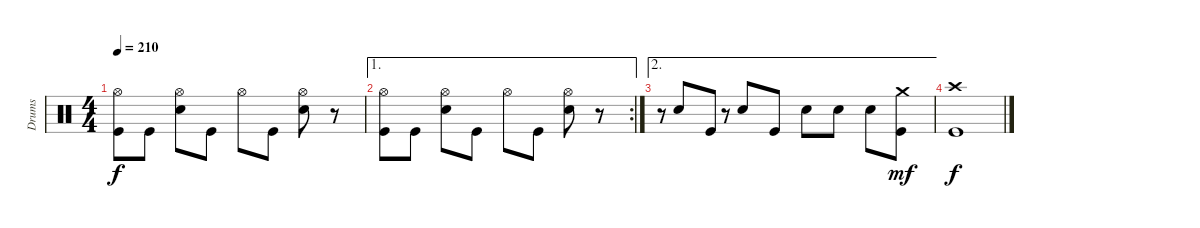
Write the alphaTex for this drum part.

\bracketExtendMode groupsimilarinstruments
\otherSystemsTrackNameOrientation horizontal
\track ("Drumkit" "Drums") {multiBarRest instrument percussion}
\staff {score}
\articulation defaults
\ts (4 4)
\tempo 210
\clef neutral
\ks c
("Hi-Hat (open)" "Kick (hit)").8{dy f} "Kick (hit)".8 ("Hi-Hat (open)" "Snare (hit) 2").8 "Kick (hit)".8 "Hi-Hat (open)".8 "Kick (hit)".8 ("Hi-Hat (open)" "Snare (hit) 2").8 r.8 |
\ae 1
\rc 2
("Hi-Hat (open)" "Kick (hit)").8 "Kick (hit)".8 ("Hi-Hat (open)" "Snare (hit) 2").8 "Kick (hit)".8 "Hi-Hat (open)".8 "Kick (hit)".8 ("Hi-Hat (open)" "Snare (hit) 2").8 r.8 |
\ae 2
r.8{gr} "Snare (hit) 2".8 "Kick (hit)".8 r.8{gr} "Snare (hit) 2".8 "Kick (hit)".8 "Snare (hit) 2".8 "Snare (hit) 2".8 "Snare (hit) 2".8 ("Crash medium (hit)" "Kick (hit)").8{dy mf} |
("Crash high (hit)" "Kick (hit)").1{dy f}
